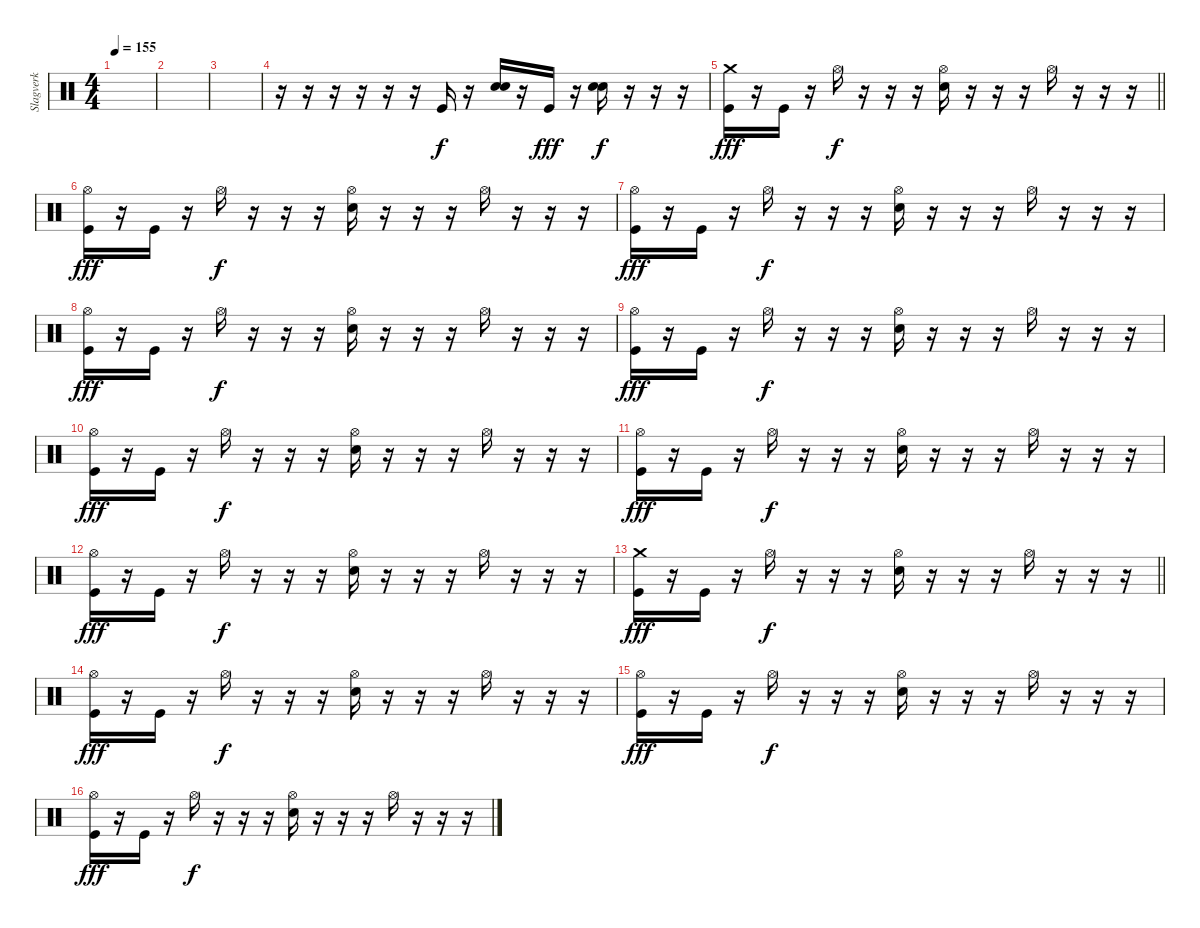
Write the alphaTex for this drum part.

\track ("Slagverk" "Slagverk") {instrument percussion}
\staff {score}
\articulation defaults
\ts (4 4)
\tempo 155
\clef neutral
\ks c
|
|
|
r.16 r.16 r.16 r.16 r.16 r.16 "Kick (hit)".16 r.16 ("Electric Snare (hit)" "Electric Snare (hit)").16{dy f} r.16 "Kick (hit)".16{dy fff} r.16 ("Electric Snare (hit)" "Electric Snare (hit)").16{dy f} r.16 r.16 r.16 |
\barLineRight lightlight
("Crash medium (hit)" "Kick (hit)").16{dy fff} r.16 "Kick (hit)".16 r.16 "Hi-Hat (open)".16{dy f} r.16 r.16 r.16 ("Hi-Hat (open)" "Electric Snare (hit)").16 r.16 r.16 r.16 "Hi-Hat (open)".16 r.16 r.16 r.16 |
("Hi-Hat (open)" "Kick (hit)").16{dy fff} r.16 "Kick (hit)".16 r.16 "Hi-Hat (open)".16{dy f} r.16 r.16 r.16 ("Hi-Hat (open)" "Electric Snare (hit)").16 r.16 r.16 r.16 "Hi-Hat (open)".16 r.16 r.16 r.16 |
("Hi-Hat (open)" "Kick (hit)").16{dy fff} r.16 "Kick (hit)".16 r.16 "Hi-Hat (open)".16{dy f} r.16 r.16 r.16 ("Hi-Hat (open)" "Electric Snare (hit)").16 r.16 r.16 r.16 "Hi-Hat (open)".16 r.16 r.16 r.16 |
("Hi-Hat (open)" "Kick (hit)").16{dy fff} r.16 "Kick (hit)".16 r.16 "Hi-Hat (open)".16{dy f} r.16 r.16 r.16 ("Hi-Hat (open)" "Electric Snare (hit)").16 r.16 r.16 r.16 "Hi-Hat (open)".16 r.16 r.16 r.16 |
("Hi-Hat (open)" "Kick (hit)").16{dy fff} r.16 "Kick (hit)".16 r.16 "Hi-Hat (open)".16{dy f} r.16 r.16 r.16 ("Hi-Hat (open)" "Electric Snare (hit)").16 r.16 r.16 r.16 "Hi-Hat (open)".16 r.16 r.16 r.16 |
("Hi-Hat (open)" "Kick (hit)").16{dy fff} r.16 "Kick (hit)".16 r.16 "Hi-Hat (open)".16{dy f} r.16 r.16 r.16 ("Hi-Hat (open)" "Electric Snare (hit)").16 r.16 r.16 r.16 "Hi-Hat (open)".16 r.16 r.16 r.16 |
("Hi-Hat (open)" "Kick (hit)").16{dy fff} r.16 "Kick (hit)".16 r.16 "Hi-Hat (open)".16{dy f} r.16 r.16 r.16 ("Hi-Hat (open)" "Electric Snare (hit)").16 r.16 r.16 r.16 "Hi-Hat (open)".16 r.16 r.16 r.16 |
("Hi-Hat (open)" "Kick (hit)").16{dy fff} r.16 "Kick (hit)".16 r.16 "Hi-Hat (open)".16{dy f} r.16 r.16 r.16 ("Hi-Hat (open)" "Electric Snare (hit)").16 r.16 r.16 r.16 "Hi-Hat (open)".16 r.16 r.16 r.16 |
\barLineRight lightlight
("Crash medium (hit)" "Kick (hit)").16{dy fff} r.16 "Kick (hit)".16 r.16 "Hi-Hat (open)".16{dy f} r.16 r.16 r.16 ("Hi-Hat (open)" "Electric Snare (hit)").16 r.16 r.16 r.16 "Hi-Hat (open)".16 r.16 r.16 r.16 |
("Hi-Hat (open)" "Kick (hit)").16{dy fff} r.16 "Kick (hit)".16 r.16 "Hi-Hat (open)".16{dy f} r.16 r.16 r.16 ("Hi-Hat (open)" "Electric Snare (hit)").16 r.16 r.16 r.16 "Hi-Hat (open)".16 r.16 r.16 r.16 |
("Hi-Hat (open)" "Kick (hit)").16{dy fff} r.16 "Kick (hit)".16 r.16 "Hi-Hat (open)".16{dy f} r.16 r.16 r.16 ("Hi-Hat (open)" "Electric Snare (hit)").16 r.16 r.16 r.16 "Hi-Hat (open)".16 r.16 r.16 r.16 |
("Hi-Hat (open)" "Kick (hit)").16{dy fff} r.16 "Kick (hit)".16 r.16 "Hi-Hat (open)".16{dy f} r.16 r.16 r.16 ("Hi-Hat (open)" "Electric Snare (hit)").16 r.16 r.16 r.16 "Hi-Hat (open)".16 r.16 r.16 r.16
